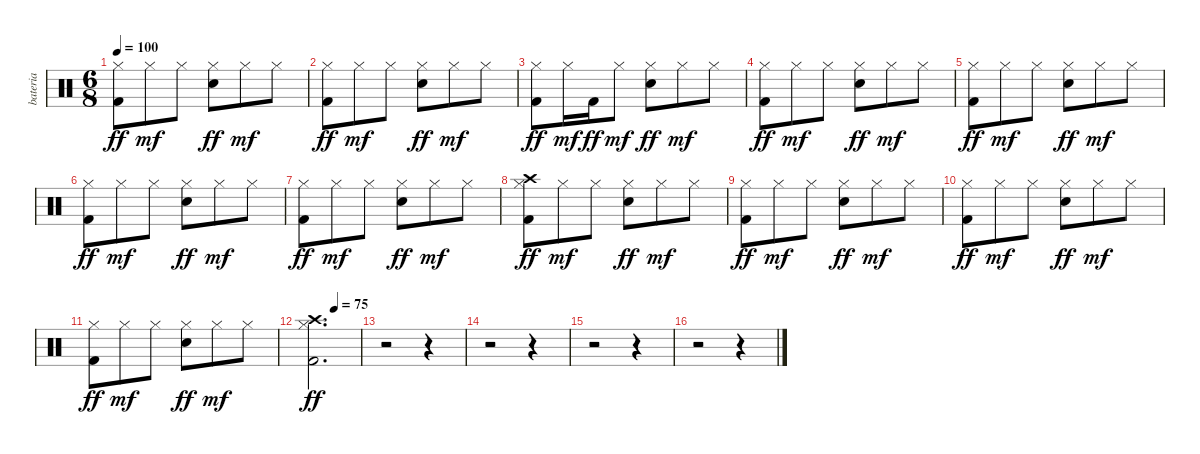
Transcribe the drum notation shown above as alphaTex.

\track ("bateria" "bateria") {instrument percussion}
\staff {score}
\articulation defaults
\ts (6 8)
\tempo 100
\clef neutral
\ks c
("Hi-Hat (closed)" "Kick (hit) 2").8{dy ff} "Hi-Hat (closed)".8{dy mf} "Hi-Hat (closed)".8 ("Hi-Hat (closed)" "Snare (hit) 2").8{dy ff} "Hi-Hat (closed)".8{dy mf} "Hi-Hat (closed)".8 |
("Hi-Hat (closed)" "Kick (hit) 2").8{dy ff} "Hi-Hat (closed)".8{dy mf} "Hi-Hat (closed)".8 ("Hi-Hat (closed)" "Snare (hit) 2").8{dy ff} "Hi-Hat (closed)".8{dy mf} "Hi-Hat (closed)".8 |
("Hi-Hat (closed)" "Kick (hit) 2").8{dy ff} "Hi-Hat (closed)".16{dy mf} "Kick (hit) 2".16{dy ff} "Hi-Hat (closed)".8{dy mf} ("Hi-Hat (closed)" "Snare (hit) 2").8{dy ff} "Hi-Hat (closed)".8{dy mf} "Hi-Hat (closed)".8 |
("Hi-Hat (closed)" "Kick (hit) 2").8{dy ff} "Hi-Hat (closed)".8{dy mf} "Hi-Hat (closed)".8 ("Hi-Hat (closed)" "Snare (hit) 2").8{dy ff} "Hi-Hat (closed)".8{dy mf} "Hi-Hat (closed)".8 |
("Hi-Hat (closed)" "Kick (hit) 2").8{dy ff} "Hi-Hat (closed)".8{dy mf} "Hi-Hat (closed)".8 ("Hi-Hat (closed)" "Snare (hit) 2").8{dy ff} "Hi-Hat (closed)".8{dy mf} "Hi-Hat (closed)".8 |
("Hi-Hat (closed)" "Kick (hit) 2").8{dy ff} "Hi-Hat (closed)".8{dy mf} "Hi-Hat (closed)".8 ("Hi-Hat (closed)" "Snare (hit) 2").8{dy ff} "Hi-Hat (closed)".8{dy mf} "Hi-Hat (closed)".8 |
("Hi-Hat (closed)" "Kick (hit) 2").8{dy ff} "Hi-Hat (closed)".8{dy mf} "Hi-Hat (closed)".8 ("Hi-Hat (closed)" "Snare (hit) 2").8{dy ff} "Hi-Hat (closed)".8{dy mf} "Hi-Hat (closed)".8 |
("Crash high (hit)" "Hi-Hat (closed)" "Kick (hit) 2").8{dy ff} "Hi-Hat (closed)".8{dy mf} "Hi-Hat (closed)".8 ("Hi-Hat (closed)" "Snare (hit) 2").8{dy ff} "Hi-Hat (closed)".8{dy mf} "Hi-Hat (closed)".8 |
("Hi-Hat (closed)" "Kick (hit) 2").8{dy ff} "Hi-Hat (closed)".8{dy mf} "Hi-Hat (closed)".8 ("Hi-Hat (closed)" "Snare (hit) 2").8{dy ff} "Hi-Hat (closed)".8{dy mf} "Hi-Hat (closed)".8 |
("Hi-Hat (closed)" "Kick (hit) 2").8{dy ff} "Hi-Hat (closed)".8{dy mf} "Hi-Hat (closed)".8 ("Hi-Hat (closed)" "Snare (hit) 2").8{dy ff} "Hi-Hat (closed)".8{dy mf} "Hi-Hat (closed)".8 |
("Hi-Hat (closed)" "Kick (hit) 2").8{dy ff} "Hi-Hat (closed)".8{dy mf} "Hi-Hat (closed)".8 ("Hi-Hat (closed)" "Snare (hit) 2").8{dy ff} "Hi-Hat (closed)".8{dy mf} "Hi-Hat (closed)".8 |
\tempo (75 0.5)
("Crash high (hit)" "Hi-Hat (closed)" "Kick (hit) 2").2{d dy ff} |
r.2 r.4 |
r.2 r.4 |
r.2 r.4 |
r.2 r.4
